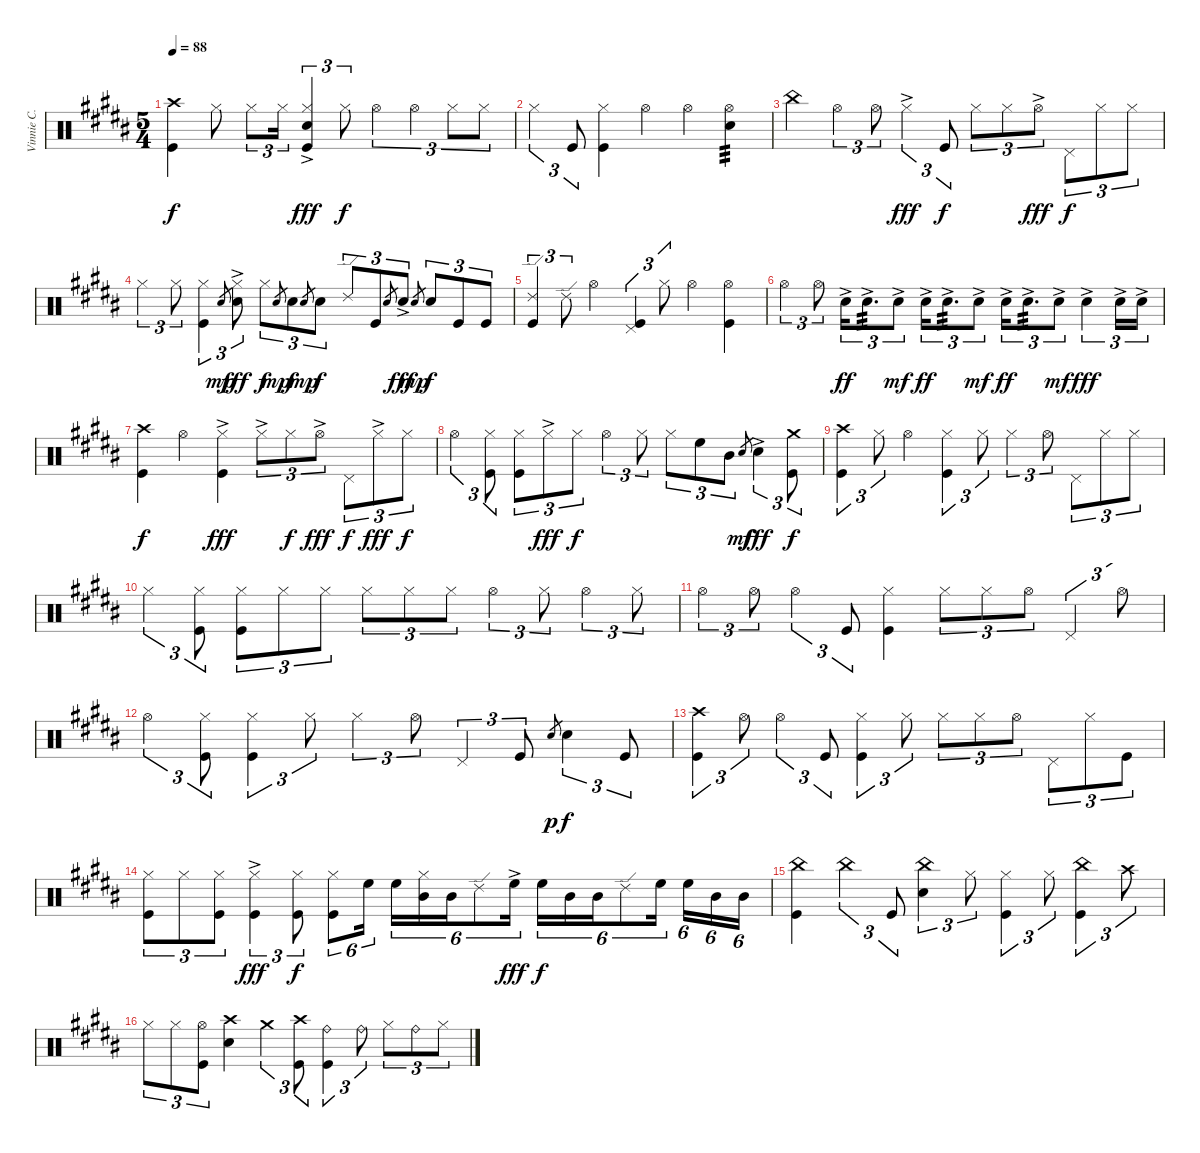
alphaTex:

\track ("Vinnie C." "Vinnie C.") {instrument percussion}
\staff {score}
\articulation defaults
\ts (5 4)
\tempo 88
\clef neutral
\ks b
("Crash high (hit)" "Kick (hit)").4{dy f} "Hi-Hat (closed)".8 "Hi-Hat (closed)".8{tu (3 2)} "Hi-Hat (closed)".16{tu (3 2)} ("Hi-Hat (closed)"{ac} "Electric Snare (hit)" "Kick (hit)").4{tu (3 2) dy fff} "Hi-Hat (closed)".8{tu (3 2) dy f} "Hi-Hat (open)".4{tu (3 2)} "Hi-Hat (open)".4{tu (3 2)} "Hi-Hat (closed)".8{tu (3 2)} "Hi-Hat (closed)".8{tu (3 2)} |
"Hi-Hat (closed)".4{tu (3 2)} "Kick (hit)".8{tu (3 2)} ("Hi-Hat (closed)" "Kick (hit)").4 "Hi-Hat (open)".4 "Hi-Hat (open)".4 ("Hi-Hat (open)" "Electric Snare (hit)").4{tp 3} |
"China (hit)".4 "Hi-Hat (open)".4{tu (3 2)} "Hi-Hat (open)".8{tu (3 2)} "Hi-Hat (closed)"{ac}.4{tu (3 2) dy fff} "Kick (hit)".8{tu (3 2) dy f} "Hi-Hat (closed)".8{tu (3 2)} "Hi-Hat (closed)".8{tu (3 2)} "Hi-Hat (open)"{ac}.8{tu (3 2) dy fff} "Pedal Hi-Hat (hit)".8{tu (3 2) dy f} "Hi-Hat (closed)".8{tu (3 2)} "Hi-Hat (closed)".8{tu (3 2)} |
"Hi-Hat (closed)".4{tu (3 2)} "Hi-Hat (closed)".8{tu (3 2)} ("Hi-Hat (closed)" "Kick (hit)").4{tu (3 2)} "Electric Snare (hit)".8{gr dy mp} ("Hi-Hat (closed)"{ac} "Electric Snare (hit)").8{tu (3 2) dy fff} "Hi-Hat (closed)".8{tu (3 2) dy f} "Electric Snare (hit)".8{gr dy mp} "Electric Snare (hit)".8{tu (3 2) dy f} "Electric Snare (hit)".8{gr dy mp} "Electric Snare (hit)".8{tu (3 2) dy f} "Ride (edge) 2".8{tu (3 2)} "Kick (hit)".8{tu (3 2)} "Electric Snare (hit)".8{gr} "Electric Snare (hit)"{ac}.8{tu (3 2) dy fff} "Electric Snare (hit)".8{gr dy mp} "Electric Snare (hit)".8{tu (3 2) dy f} "Kick (hit)".8{tu (3 2)} "Kick (hit)".8{tu (3 2)} |
("Ride (edge) 2" "Kick (hit)").4{tu (3 2)} "Ride (edge) 2".8{tu (3 2)} "Hi-Hat (open)".4 ("Pedal Hi-Hat (hit)" "Kick (hit)").4{tu (3 2)} "Hi-Hat (closed)".8{tu (3 2)} "Hi-Hat (open)".4 ("Hi-Hat (open)" "Kick (hit)").4 |
"Hi-Hat (open)".4{tu (3 2)} "Hi-Hat (open)".8{tu (3 2)} "Electric Snare (hit)"{ac}.16{tu (3 2) dy ff} "Electric Snare (hit)"{ac}.8{d tu (3 2) tp 3} "Electric Snare (hit)"{ac}.8{tu (3 2) dy mf} "Electric Snare (hit)"{ac}.16{tu (3 2) dy ff} "Electric Snare (hit)"{ac}.8{d tu (3 2) tp 3} "Electric Snare (hit)"{ac}.8{tu (3 2) dy mf} "Electric Snare (hit)"{ac}.16{tu (3 2) dy ff} "Electric Snare (hit)"{ac}.8{d tu (3 2) tp 3} "Electric Snare (hit)"{ac}.8{tu (3 2) dy mf} "Electric Snare (hit)"{ac}.4{tu (3 2) dy fff} "Electric Snare (hit)"{ac}.16{tu (3 2)} "Electric Snare (hit)"{ac}.16{tu (3 2)} |
("Crash high (hit)" "Kick (hit)").4{dy f} "Hi-Hat (open)".4 ("Hi-Hat (closed)"{ac} "Kick (hit)").4{dy fff} "Hi-Hat (closed)"{ac}.8{tu (3 2)} "Hi-Hat (closed)".8{tu (3 2) dy f} "Hi-Hat (open)"{ac}.8{tu (3 2) dy fff} "Pedal Hi-Hat (hit)".8{tu (3 2) dy f} "Hi-Hat (closed)"{ac}.8{tu (3 2) dy fff} "Hi-Hat (closed)".8{tu (3 2) dy f} |
"Hi-Hat (open)".4{tu (3 2)} ("Hi-Hat (closed)" "Kick (hit)").8{tu (3 2)} ("Hi-Hat (closed)" "Kick (hit)").8{tu (3 2)} "Hi-Hat (closed)"{ac}.8{tu (3 2) dy fff} "Hi-Hat (closed)".8{tu (3 2) dy f} "Hi-Hat (open)".4{tu (3 2)} "Hi-Hat (closed)".8{tu (3 2)} "Hi-Hat (closed)".8{tu (3 2)} "High Floor Tom (hit)".8{tu (3 2)} "Mid Tom (hit)".8{tu (3 2)} "Electric Snare (hit)".8{gr dy mf} "Electric Snare (hit)"{ac}.4{tu (3 2) dy fff} ("Crash medium (hit)" "Kick (hit)").8{tu (3 2) dy f} |
("Crash high (hit)" "Kick (hit)").4{tu (3 2)} "Hi-Hat (closed)".8{tu (3 2)} "Hi-Hat (open)".4 ("Hi-Hat (closed)" "Kick (hit)").4{tu (3 2)} "Hi-Hat (closed)".8{tu (3 2)} "Hi-Hat (closed)".4{tu (3 2)} "Hi-Hat (open)".8{tu (3 2)} "Pedal Hi-Hat (hit)".8{tu (3 2)} "Hi-Hat (closed)".8{tu (3 2)} "Hi-Hat (closed)".8{tu (3 2)} |
"Hi-Hat (closed)".4{tu (3 2)} ("Hi-Hat (closed)" "Kick (hit)").8{tu (3 2)} ("Hi-Hat (closed)" "Kick (hit)").8{tu (3 2)} "Hi-Hat (closed)".8{tu (3 2)} "Hi-Hat (closed)".8{tu (3 2)} "Hi-Hat (closed)".8{tu (3 2)} "Hi-Hat (closed)".8{tu (3 2)} "Hi-Hat (closed)".8{tu (3 2)} "Hi-Hat (open)".4{tu (3 2)} "Hi-Hat (closed)".8{tu (3 2)} "Hi-Hat (open)".4{tu (3 2)} "Hi-Hat (closed)".8{tu (3 2)} |
"Hi-Hat (open)".4{tu (3 2)} "Hi-Hat (open)".8{tu (3 2)} "Hi-Hat (open)".4{tu (3 2)} "Kick (hit)".8{tu (3 2)} ("Hi-Hat (closed)" "Kick (hit)").4 "Hi-Hat (closed)".8{tu (3 2)} "Hi-Hat (closed)".8{tu (3 2)} "Hi-Hat (open)".8{tu (3 2)} "Pedal Hi-Hat (hit)".4{tu (3 2)} "Hi-Hat (open)".8{tu (3 2)} |
"Hi-Hat (open)".4{tu (3 2)} ("Hi-Hat (closed)" "Kick (hit)").8{tu (3 2)} ("Hi-Hat (closed)" "Kick (hit)").4{tu (3 2)} "Hi-Hat (closed)".8{tu (3 2)} "Hi-Hat (closed)".4{tu (3 2)} "Hi-Hat (open)".8{tu (3 2)} "Pedal Hi-Hat (hit)".4{tu (3 2)} "Kick (hit)".8{tu (3 2)} "Electric Snare (hit)".8{gr dy p} "Electric Snare (hit)".4{tu (3 2) dy f} "Kick (hit)".8{tu (3 2)} |
("Crash high (hit)" "Kick (hit)").4{tu (3 2)} "Hi-Hat (open)".8{tu (3 2)} "Hi-Hat (open)".4{tu (3 2)} "Kick (hit)".8{tu (3 2)} ("Hi-Hat (closed)" "Kick (hit)").4{tu (3 2)} "Hi-Hat (closed)".8{tu (3 2)} "Hi-Hat (closed)".8{tu (3 2)} "Hi-Hat (closed)".8{tu (3 2)} "Hi-Hat (open)".8{tu (3 2)} "Pedal Hi-Hat (hit)".8{tu (3 2)} "Hi-Hat (closed)".8{tu (3 2)} "Kick (hit)".8{tu (3 2)} |
("Hi-Hat (closed)" "Kick (hit)").8{tu (3 2)} "Hi-Hat (closed)".8{tu (3 2)} ("Hi-Hat (closed)" "Kick (hit)").8{tu (3 2)} ("Hi-Hat (closed)"{ac} "Kick (hit)").4{tu (3 2) dy fff} ("Hi-Hat (closed)" "Kick (hit)").8{tu (3 2) dy f} ("Hi-Hat (closed)" "Kick (hit)").8{tu (6 4)} "High Floor Tom (hit)".16{tu (6 4)} "High Floor Tom (hit)".16{tu (6 4)} ("Hi-Hat (closed)" "Mid Tom (hit)").16{tu (6 4)} "Mid Tom (hit)".16{tu (6 4)} "Ride (edge) 2".8{tu (6 4)} "High Floor Tom (hit)"{ac}.16{tu (6 4) dy fff} "High Floor Tom (hit)".16{tu (6 4) dy f} "Mid Tom (hit)".16{tu (6 4)} "Mid Tom (hit)".16{tu (6 4)} "Ride (edge) 2".8{tu (6 4)} "High Floor Tom (hit)".16{tu (6 4)} "High Floor Tom (hit)".16{tu (6 4)} "Mid Tom (hit)".16{tu (6 4)} "Mid Tom (hit)".16{tu (6 4)} |
("China (hit)" "Kick (hit)").4 "China (hit)".4{tu (3 2)} "Kick (hit)".8{tu (3 2)} ("China (hit)" "Electric Snare (hit)").4{tu (3 2)} "Hi-Hat (closed)".8{tu (3 2)} ("Hi-Hat (closed)" "Kick (hit)").4{tu (3 2)} "Hi-Hat (closed)".8{tu (3 2)} ("China (hit)" "Kick (hit)").4{tu (3 2)} "Crash high (hit)".8{tu (3 2)} |
"Hi-Hat (closed)".8{tu (3 2)} "Hi-Hat (closed)".8{tu (3 2)} ("Hi-Hat (open)" "Kick (hit)").8{tu (3 2)} ("Crash high (hit)" "Electric Snare (hit)").4 "Crash medium (hit)".4{tu (3 2)} ("Crash high (hit)" "Kick (hit)").8{tu (3 2)} ("Ride (bell)" "Kick (hit)").4{tu (3 2)} "Ride (bell)".8{tu (3 2)} "Hi-Hat (closed)".8{tu (3 2)} "Ride (bell)".8{tu (3 2)} "Hi-Hat (closed)".8{tu (3 2)}
